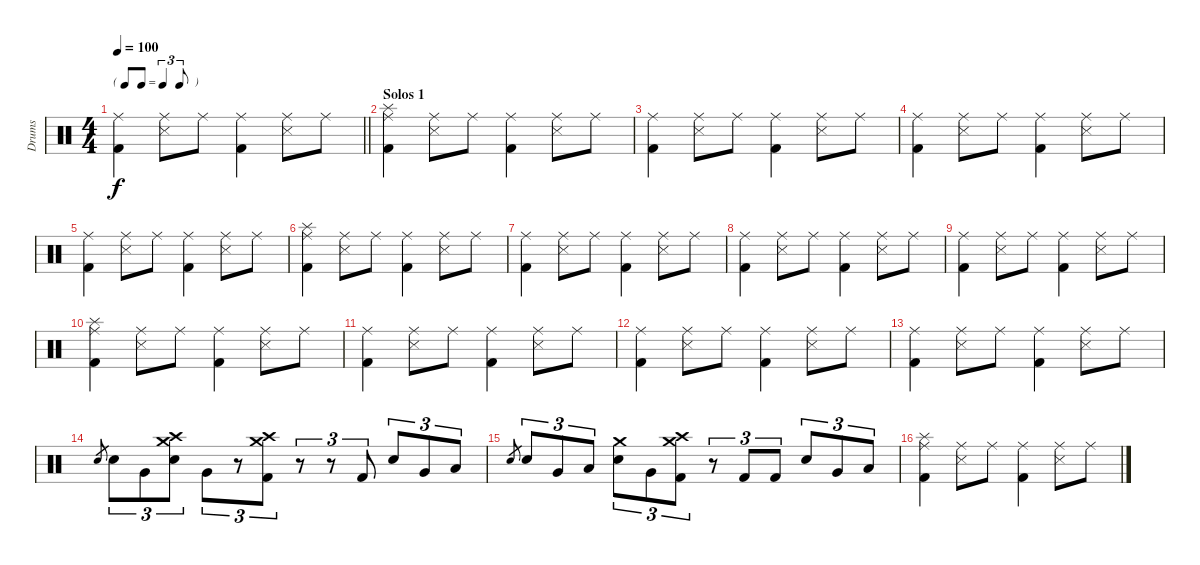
\track ("Drums" "Drums") {instrument percussion}
\staff {score}
\articulation defaults
\ts (4 4)
\tf triplet8th
\tempo 100
\clef neutral
\barLineRight lightlight
\ks c
("Ride (middle)" "Kick (hit) 2").4{dy f} ("Ride (middle)" "Snare (side stick) 3").8 "Ride (middle)".8 ("Ride (middle)" "Kick (hit) 2").4 ("Ride (middle)" "Snare (side stick) 3").8 "Ride (middle)".8 |
\section ("" "Solos 1")
("Ride (middle)" "Splash (hit)" "Kick (hit) 2").4 ("Ride (middle)" "Snare (side stick) 3").8 "Ride (middle)".8 ("Ride (middle)" "Kick (hit) 2").4 ("Ride (middle)" "Snare (side stick) 3").8 "Ride (middle)".8 |
("Ride (middle)" "Kick (hit) 2").4 ("Ride (middle)" "Snare (side stick) 3").8 "Ride (middle)".8 ("Ride (middle)" "Kick (hit) 2").4 ("Ride (middle)" "Snare (side stick) 3").8 "Ride (middle)".8 |
("Ride (middle)" "Kick (hit) 2").4 ("Ride (middle)" "Snare (side stick) 3").8 "Ride (middle)".8 ("Ride (middle)" "Kick (hit) 2").4 ("Ride (middle)" "Snare (side stick) 3").8 "Ride (middle)".8 |
("Ride (middle)" "Kick (hit) 2").4 ("Ride (middle)" "Snare (side stick) 3").8 "Ride (middle)".8 ("Ride (middle)" "Kick (hit) 2").4 ("Ride (middle)" "Snare (side stick) 3").8 "Ride (middle)".8 |
("Ride (middle)" "Splash (hit)" "Kick (hit) 2").4 ("Ride (middle)" "Snare (side stick) 3").8 "Ride (middle)".8 ("Ride (middle)" "Kick (hit) 2").4 ("Ride (middle)" "Snare (side stick) 3").8 "Ride (middle)".8 |
("Ride (middle)" "Kick (hit) 2").4 ("Ride (middle)" "Snare (side stick) 3").8 "Ride (middle)".8 ("Ride (middle)" "Kick (hit) 2").4 ("Ride (middle)" "Snare (side stick) 3").8 "Ride (middle)".8 |
("Ride (middle)" "Kick (hit) 2").4 ("Ride (middle)" "Snare (side stick) 3").8 "Ride (middle)".8 ("Ride (middle)" "Kick (hit) 2").4 ("Ride (middle)" "Snare (side stick) 3").8 "Ride (middle)".8 |
("Ride (middle)" "Kick (hit) 2").4 ("Ride (middle)" "Snare (side stick) 3").8 "Ride (middle)".8 ("Ride (middle)" "Kick (hit) 2").4 ("Ride (middle)" "Snare (side stick) 3").8 "Ride (middle)".8 |
("Ride (middle)" "Splash (hit)" "Kick (hit) 2").4 ("Ride (middle)" "Snare (side stick) 3").8 "Ride (middle)".8 ("Ride (middle)" "Kick (hit) 2").4 ("Ride (middle)" "Snare (side stick) 3").8 "Ride (middle)".8 |
("Ride (middle)" "Kick (hit) 2").4 ("Ride (middle)" "Snare (side stick) 3").8 "Ride (middle)".8 ("Ride (middle)" "Kick (hit) 2").4 ("Ride (middle)" "Snare (side stick) 3").8 "Ride (middle)".8 |
("Ride (middle)" "Kick (hit) 2").4 ("Ride (middle)" "Snare (side stick) 3").8 "Ride (middle)".8 ("Ride (middle)" "Kick (hit) 2").4 ("Ride (middle)" "Snare (side stick) 3").8 "Ride (middle)".8 |
("Ride (middle)" "Kick (hit) 2").4 ("Ride (middle)" "Snare (side stick) 3").8 "Ride (middle)".8 ("Ride (middle)" "Kick (hit) 2").4 ("Ride (middle)" "Snare (side stick) 3").8 "Ride (middle)".8 |
"Electric Snare (hit)".8{gr} "Electric Snare (hit)".8{tu (3 2)} "Very Low Tom (hit)".8{tu (3 2)} ("Crash medium (hit)" "Crash high (hit)" "Electric Snare (hit)").8{tu (3 2)} "Very Low Tom (hit)".8{tu (3 2)} r.8{tu (3 2)} ("Crash medium (hit)" "Crash high (hit)" "Kick (hit) 2").8{tu (3 2)} r.8{tu (3 2)} r.8{tu (3 2)} "Kick (hit) 2".8{tu (3 2)} "Electric Snare (hit)".8{tu (3 2)} "Very Low Tom (hit)".8{tu (3 2)} "Low Floor Tom (hit)".8{tu (3 2)} |
"Electric Snare (hit)".8{gr} "Electric Snare (hit)".8{tu (3 2)} "Very Low Tom (hit)".8{tu (3 2)} "Low Floor Tom (hit)".8{tu (3 2)} ("Crash medium (hit)" "Electric Snare (hit)").8{tu (3 2)} "Very Low Tom (hit)".8{tu (3 2)} ("Crash medium (hit)" "Crash high (hit)" "Kick (hit) 2").8{tu (3 2)} r.8{tu (3 2)} "Kick (hit) 2".8{tu (3 2)} "Kick (hit) 2".8{tu (3 2)} "Electric Snare (hit)".8{tu (3 2)} "Very Low Tom (hit)".8{tu (3 2)} "Low Floor Tom (hit)".8{tu (3 2)} |
("Ride (middle)" "Splash (hit)" "Kick (hit) 2").4 ("Ride (middle)" "Snare (side stick) 3").8 "Ride (middle)".8 ("Ride (middle)" "Kick (hit) 2").4 ("Ride (middle)" "Snare (side stick) 3").8 "Ride (middle)".8
